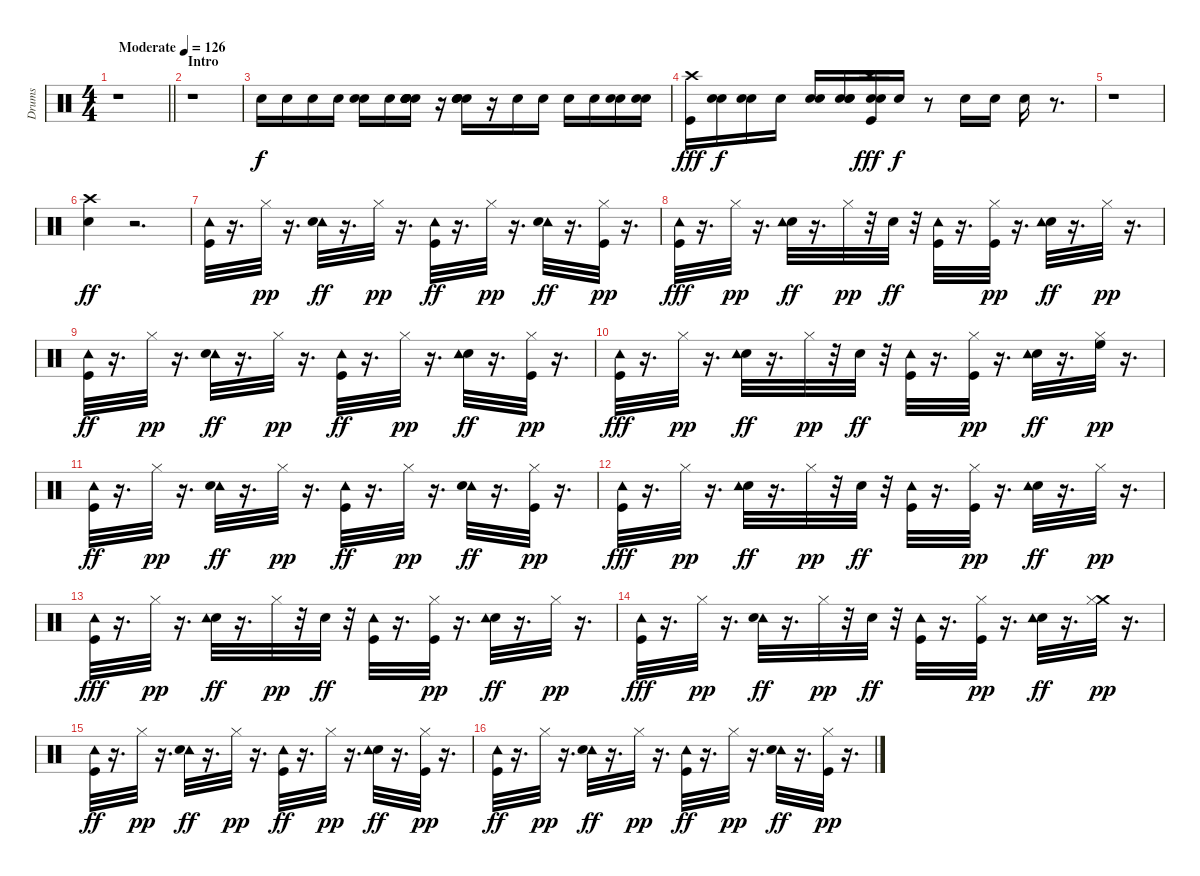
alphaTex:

\track ("Drums" "Drums") {instrument percussion}
\staff {score}
\articulation defaults
\ts (4 4)
\tempo (126 "Moderate")
\clef neutral
\barLineRight lightlight
\ks c
r.1{dy f} |
\section ("" "Intro")
r.1 |
"Snare (hit)".16 "Snare (hit)".16 "Snare (hit)".16 "Snare (hit)".16 ("Snare (hit)" "Snare (hit)").16 "Snare (hit)".16 ("Snare (hit)" "Snare (hit)" "Snare (hit)" "Snare (hit)" "Snare (hit)" "Snare (hit)").16 r.16 ("Snare (hit)" "Snare (hit)" "Snare (hit)" "Snare (hit)").16 r.16 "Snare (hit)".16 "Snare (hit)".16 "Snare (hit)".16 "Snare (hit)".16 ("Snare (hit)" "Snare (hit)").16 ("Snare (hit)" "Snare (hit)").16 |
("Crash high (hit)" "Kick (hit)").16{dy fff} ("Snare (hit)" "Snare (hit)").16{dy f} ("Snare (hit)" "Snare (hit)").16 "Snare (hit)".16 ("Snare (hit)" "Snare (hit)").16 ("Snare (hit)" "Snare (hit)" "Snare (hit)").16 ("Snare (hit)" "Snare (hit)" "Crash high (hit)" "Kick (hit)").16{dy fff} "Snare (hit)".16{dy f} r.8 "Snare (hit)".16 "Snare (hit)".16 "Snare (hit)".16 r.8{d} |
r.1 |
("Crash high (hit)" "Electric Snare (hit)").4{dy ff} r.2{d} |
("Tambourine (hit)" "Kick (hit)").32 r.16{d} "Hi-Hat (closed)".32{dy pp} r.16{d} ("Tambourine (hit)" "Electric Snare (hit)").32{dy ff} r.16{d} "Hi-Hat (closed)".32{dy pp} r.16{d} ("Kick (hit)" "Tambourine (hit)").32{dy ff} r.16{d} "Hi-Hat (closed)".32{dy pp} r.16{d} ("Tambourine (hit)" "Electric Snare (hit)").32{dy ff} r.16{d} ("Kick (hit)" "Hi-Hat (closed)").32{dy pp} r.16{d} |
("Tambourine (hit)" "Kick (hit)").32{dy fff} r.16{d} "Hi-Hat (closed)".32{dy pp} r.16{d} ("Electric Snare (hit)" "Tambourine (hit)").32{dy ff} r.16{d} "Hi-Hat (closed)".32{dy pp} r.32 "Electric Snare (hit)".32{dy ff} r.32 ("Tambourine (hit)" "Kick (hit)").32 r.16{d} ("Hi-Hat (closed)" "Kick (hit)").32{dy pp} r.16{d} ("Electric Snare (hit)" "Tambourine (hit)").32{dy ff} r.16{d} "Hi-Hat (closed)".32{dy pp} r.16{d} |
("Tambourine (hit)" "Kick (hit)").32{dy ff} r.16{d} "Hi-Hat (closed)".32{dy pp} r.16{d} ("Tambourine (hit)" "Electric Snare (hit)").32{dy ff} r.16{d} "Hi-Hat (closed)".32{dy pp} r.16{d} ("Kick (hit)" "Tambourine (hit)").32{dy ff} r.16{d} "Hi-Hat (closed)".32{dy pp} r.16{d} ("Electric Snare (hit)" "Tambourine (hit)").32{dy ff} r.16{d} ("Hi-Hat (closed)" "Kick (hit)").32{dy pp} r.16{d} |
("Kick (hit)" "Tambourine (hit)").32{dy fff} r.16{d} "Hi-Hat (closed)".32{dy pp} r.16{d} ("Electric Snare (hit)" "Tambourine (hit)").32{dy ff} r.16{d} "Hi-Hat (closed)".32{dy pp} r.32 "Electric Snare (hit)".32{dy ff} r.32 ("Tambourine (hit)" "Kick (hit)").32 r.16{d} ("Hi-Hat (closed)" "Kick (hit)").32{dy pp} r.16{d} ("Electric Snare (hit)" "Tambourine (hit)").32{dy ff} r.16{d} ("High Floor Tom (hit)" "Hi-Hat (closed)").32{dy pp} r.16{d} |
("Tambourine (hit)" "Kick (hit)").32{dy ff} r.16{d} "Hi-Hat (closed)".32{dy pp} r.16{d} ("Tambourine (hit)" "Electric Snare (hit)").32{dy ff} r.16{d} "Hi-Hat (closed)".32{dy pp} r.16{d} ("Tambourine (hit)" "Kick (hit)").32{dy ff} r.16{d} "Hi-Hat (closed)".32{dy pp} r.16{d} ("Tambourine (hit)" "Electric Snare (hit)").32{dy ff} r.16{d} ("Kick (hit)" "Hi-Hat (closed)").32{dy pp} r.16{d} |
("Tambourine (hit)" "Kick (hit)").32{dy fff} r.16{d} "Hi-Hat (closed)".32{dy pp} r.16{d} ("Electric Snare (hit)" "Tambourine (hit)").32{dy ff} r.16{d} "Hi-Hat (closed)".32{dy pp} r.32 "Electric Snare (hit)".32{dy ff} r.32 ("Tambourine (hit)" "Kick (hit)").32 r.16{d} ("Hi-Hat (closed)" "Kick (hit)").32{dy pp} r.16{d} ("Electric Snare (hit)" "Tambourine (hit)").32{dy ff} r.16{d} "Hi-Hat (closed)".32{dy pp} r.16{d} |
("Kick (hit)" "Tambourine (hit)").32{dy fff} r.16{d} "Hi-Hat (closed)".32{dy pp} r.16{d} ("Electric Snare (hit)" "Tambourine (hit)").32{dy ff} r.16{d} "Hi-Hat (closed)".32{dy pp} r.32 "Electric Snare (hit)".32{dy ff} r.32 ("Tambourine (hit)" "Kick (hit)").32 r.16{d} ("Hi-Hat (closed)" "Kick (hit)").32{dy pp} r.16{d} ("Electric Snare (hit)" "Tambourine (hit)").32{dy ff} r.16{d} "Hi-Hat (closed)".32{dy pp} r.16{d} |
("Tambourine (hit)" "Kick (hit)").32{dy fff} r.16{d} "Hi-Hat (closed)".32{dy pp} r.16{d} ("Tambourine (hit)" "Electric Snare (hit)").32{dy ff} r.16{d} "Hi-Hat (closed)".32{dy pp} r.32 "Electric Snare (hit)".32{dy ff} r.32 ("Kick (hit)" "Tambourine (hit)").32 r.16{d} ("Hi-Hat (closed)" "Kick (hit)").32{dy pp} r.16{d} ("Electric Snare (hit)" "Tambourine (hit)").32{dy ff} r.16{d} ("Crash medium (hit)" "Hi-Hat (closed)").32{dy pp} r.16{d} |
("Tambourine (hit)" "Kick (hit)").32{dy ff} r.16{d} "Hi-Hat (closed)".32{dy pp} r.16{d} ("Tambourine (hit)" "Electric Snare (hit)").32{dy ff} r.16{d} "Hi-Hat (closed)".32{dy pp} r.16{d} ("Kick (hit)" "Tambourine (hit)").32{dy ff} r.16{d} "Hi-Hat (closed)".32{dy pp} r.16{d} ("Electric Snare (hit)" "Tambourine (hit)").32{dy ff} r.16{d} ("Hi-Hat (closed)" "Kick (hit)").32{dy pp} r.16{d} |
("Tambourine (hit)" "Kick (hit)").32{dy ff} r.16{d} "Hi-Hat (closed)".32{dy pp} r.16{d} ("Tambourine (hit)" "Electric Snare (hit)").32{dy ff} r.16{d} "Hi-Hat (closed)".32{dy pp} r.16{d} ("Kick (hit)" "Tambourine (hit)").32{dy ff} r.16{d} "Hi-Hat (closed)".32{dy pp} r.16{d} ("Tambourine (hit)" "Electric Snare (hit)").32{dy ff} r.16{d} ("Kick (hit)" "Hi-Hat (closed)").32{dy pp} r.16{d}
